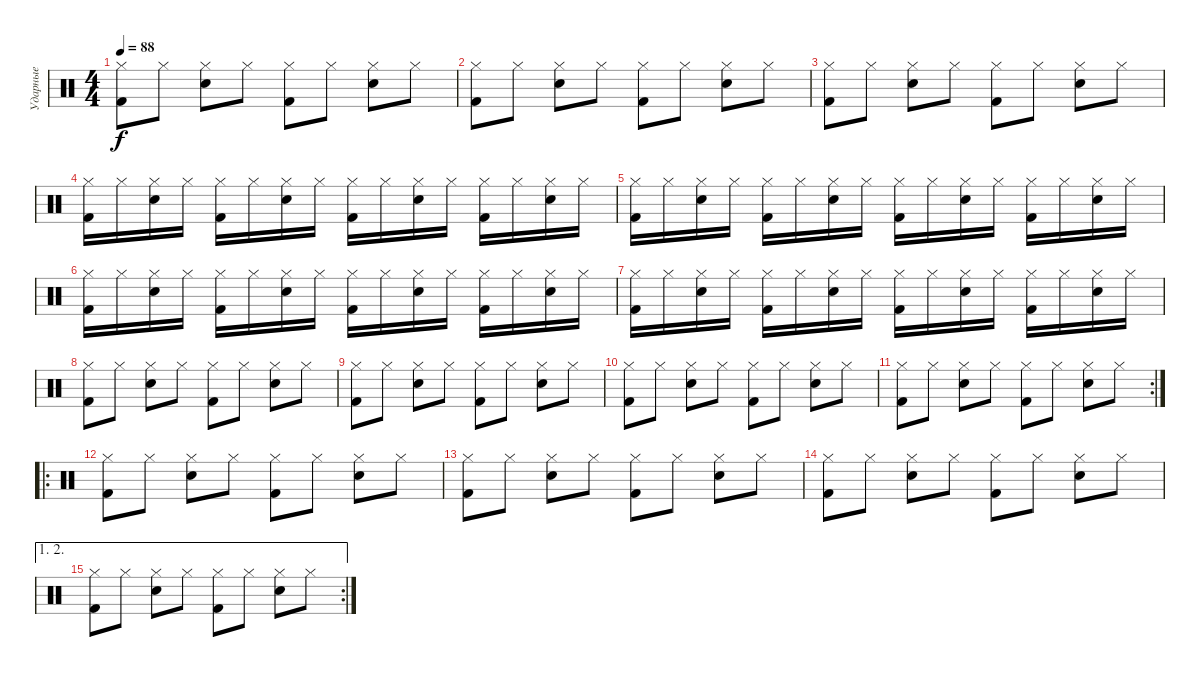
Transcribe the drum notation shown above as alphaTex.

\track ("Ударные" "Ударные") {instrument percussion}
\staff {score}
\articulation defaults
\ts (4 4)
\tempo 88
\clef neutral
\ks c
("Hi-Hat (closed)" "Kick (hit) 2").8{dy f} "Hi-Hat (closed)".8 ("Hi-Hat (closed)" "Snare (hit) 2").8 "Hi-Hat (closed)".8 ("Hi-Hat (closed)" "Kick (hit) 2").8 "Hi-Hat (closed)".8 ("Hi-Hat (closed)" "Snare (hit) 2").8 "Hi-Hat (closed)".8 |
("Hi-Hat (closed)" "Kick (hit) 2").8 "Hi-Hat (closed)".8 ("Hi-Hat (closed)" "Snare (hit) 2").8 "Hi-Hat (closed)".8 ("Hi-Hat (closed)" "Kick (hit) 2").8 "Hi-Hat (closed)".8 ("Hi-Hat (closed)" "Snare (hit) 2").8 "Hi-Hat (closed)".8 |
("Hi-Hat (closed)" "Kick (hit) 2").8 "Hi-Hat (closed)".8 ("Hi-Hat (closed)" "Snare (hit) 2").8 "Hi-Hat (closed)".8 ("Hi-Hat (closed)" "Kick (hit) 2").8 "Hi-Hat (closed)".8 ("Hi-Hat (closed)" "Snare (hit) 2").8 "Hi-Hat (closed)".8 |
("Hi-Hat (closed)" "Kick (hit) 2").16 "Hi-Hat (closed)".16 ("Hi-Hat (closed)" "Snare (hit) 2").16 "Hi-Hat (closed)".16 ("Hi-Hat (closed)" "Kick (hit) 2").16 "Hi-Hat (closed)".16 ("Hi-Hat (closed)" "Snare (hit) 2").16 "Hi-Hat (closed)".16 ("Hi-Hat (closed)" "Kick (hit) 2").16 "Hi-Hat (closed)".16 ("Hi-Hat (closed)" "Snare (hit) 2").16 "Hi-Hat (closed)".16 ("Hi-Hat (closed)" "Kick (hit) 2").16 "Hi-Hat (closed)".16 ("Hi-Hat (closed)" "Snare (hit) 2").16 "Hi-Hat (closed)".16 |
("Hi-Hat (closed)" "Kick (hit) 2").16 "Hi-Hat (closed)".16 ("Hi-Hat (closed)" "Snare (hit) 2").16 "Hi-Hat (closed)".16 ("Hi-Hat (closed)" "Kick (hit) 2").16 "Hi-Hat (closed)".16 ("Hi-Hat (closed)" "Snare (hit) 2").16 "Hi-Hat (closed)".16 ("Hi-Hat (closed)" "Kick (hit) 2").16 "Hi-Hat (closed)".16 ("Hi-Hat (closed)" "Snare (hit) 2").16 "Hi-Hat (closed)".16 ("Hi-Hat (closed)" "Kick (hit) 2").16 "Hi-Hat (closed)".16 ("Hi-Hat (closed)" "Snare (hit) 2").16 "Hi-Hat (closed)".16 |
("Hi-Hat (closed)" "Kick (hit) 2").16 "Hi-Hat (closed)".16 ("Hi-Hat (closed)" "Snare (hit) 2").16 "Hi-Hat (closed)".16 ("Hi-Hat (closed)" "Kick (hit) 2").16 "Hi-Hat (closed)".16 ("Hi-Hat (closed)" "Snare (hit) 2").16 "Hi-Hat (closed)".16 ("Hi-Hat (closed)" "Kick (hit) 2").16 "Hi-Hat (closed)".16 ("Hi-Hat (closed)" "Snare (hit) 2").16 "Hi-Hat (closed)".16 ("Hi-Hat (closed)" "Kick (hit) 2").16 "Hi-Hat (closed)".16 ("Hi-Hat (closed)" "Snare (hit) 2").16 "Hi-Hat (closed)".16 |
("Hi-Hat (closed)" "Kick (hit) 2").16 "Hi-Hat (closed)".16 ("Hi-Hat (closed)" "Snare (hit) 2").16 "Hi-Hat (closed)".16 ("Hi-Hat (closed)" "Kick (hit) 2").16 "Hi-Hat (closed)".16 ("Hi-Hat (closed)" "Snare (hit) 2").16 "Hi-Hat (closed)".16 ("Hi-Hat (closed)" "Kick (hit) 2").16 "Hi-Hat (closed)".16 ("Hi-Hat (closed)" "Snare (hit) 2").16 "Hi-Hat (closed)".16 ("Hi-Hat (closed)" "Kick (hit) 2").16 "Hi-Hat (closed)".16 ("Hi-Hat (closed)" "Snare (hit) 2").16 "Hi-Hat (closed)".16 |
("Hi-Hat (closed)" "Kick (hit) 2").8 "Hi-Hat (closed)".8 ("Hi-Hat (closed)" "Snare (hit) 2").8 "Hi-Hat (closed)".8 ("Hi-Hat (closed)" "Kick (hit) 2").8 "Hi-Hat (closed)".8 ("Hi-Hat (closed)" "Snare (hit) 2").8 "Hi-Hat (closed)".8 |
("Hi-Hat (closed)" "Kick (hit) 2").8 "Hi-Hat (closed)".8 ("Hi-Hat (closed)" "Snare (hit) 2").8 "Hi-Hat (closed)".8 ("Hi-Hat (closed)" "Kick (hit) 2").8 "Hi-Hat (closed)".8 ("Hi-Hat (closed)" "Snare (hit) 2").8 "Hi-Hat (closed)".8 |
("Hi-Hat (closed)" "Kick (hit) 2").8 "Hi-Hat (closed)".8 ("Hi-Hat (closed)" "Snare (hit) 2").8 "Hi-Hat (closed)".8 ("Hi-Hat (closed)" "Kick (hit) 2").8 "Hi-Hat (closed)".8 ("Hi-Hat (closed)" "Snare (hit) 2").8 "Hi-Hat (closed)".8 |
\rc 2
("Hi-Hat (closed)" "Kick (hit) 2").8 "Hi-Hat (closed)".8 ("Hi-Hat (closed)" "Snare (hit) 2").8 "Hi-Hat (closed)".8 ("Hi-Hat (closed)" "Kick (hit) 2").8 "Hi-Hat (closed)".8 ("Hi-Hat (closed)" "Snare (hit) 2").8 "Hi-Hat (closed)".8 |
\ro
("Hi-Hat (closed)" "Kick (hit) 2").8 "Hi-Hat (closed)".8 ("Hi-Hat (closed)" "Snare (hit) 2").8 "Hi-Hat (closed)".8 ("Hi-Hat (closed)" "Kick (hit) 2").8 "Hi-Hat (closed)".8 ("Hi-Hat (closed)" "Snare (hit) 2").8 "Hi-Hat (closed)".8 |
("Hi-Hat (closed)" "Kick (hit) 2").8 "Hi-Hat (closed)".8 ("Hi-Hat (closed)" "Snare (hit) 2").8 "Hi-Hat (closed)".8 ("Hi-Hat (closed)" "Kick (hit) 2").8 "Hi-Hat (closed)".8 ("Hi-Hat (closed)" "Snare (hit) 2").8 "Hi-Hat (closed)".8 |
("Hi-Hat (closed)" "Kick (hit) 2").8 "Hi-Hat (closed)".8 ("Hi-Hat (closed)" "Snare (hit) 2").8 "Hi-Hat (closed)".8 ("Hi-Hat (closed)" "Kick (hit) 2").8 "Hi-Hat (closed)".8 ("Hi-Hat (closed)" "Snare (hit) 2").8 "Hi-Hat (closed)".8 |
\ae (1 2)
\rc 2
("Hi-Hat (closed)" "Kick (hit) 2").8 "Hi-Hat (closed)".8 ("Hi-Hat (closed)" "Snare (hit) 2").8 "Hi-Hat (closed)".8 ("Hi-Hat (closed)" "Kick (hit) 2").8 "Hi-Hat (closed)".8 ("Hi-Hat (closed)" "Snare (hit) 2").8 "Hi-Hat (closed)".8
